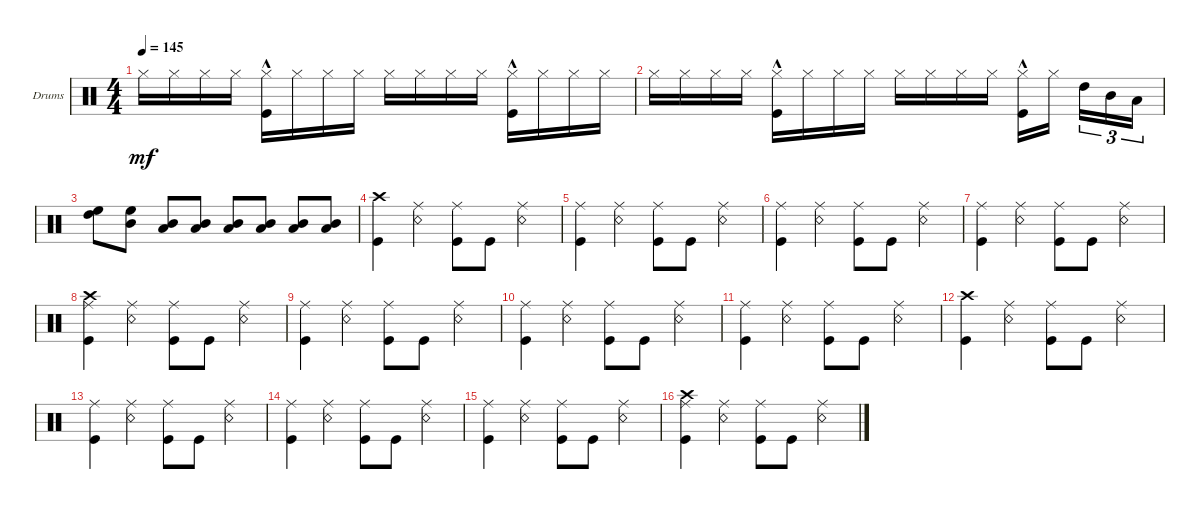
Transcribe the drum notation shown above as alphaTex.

\defaultSystemsLayout 4
\bracketExtendMode groupsimilarinstruments
\firstSystemTrackNameOrientation horizontal
\otherSystemsTrackNameOrientation horizontal
\track ("Drumkit" "Drums") {instrument percussion}
\staff {score}
\articulation defaults
\ts (4 4)
\tempo 145
\clef neutral
\ks c "Hi-Hat (closed)".16{dy mf} "Hi-Hat (closed)".16 "Hi-Hat (closed)".16 "Hi-Hat (closed)".16
("Hi-Hat (closed)"{hac} "Kick (hit)").16 "Hi-Hat (closed)".16 "Hi-Hat (closed)".16 "Hi-Hat (closed)".16 "Hi-Hat (closed)".16 "Hi-Hat (closed)".16 "Hi-Hat (closed)".16 "Hi-Hat (closed)".16 ("Hi-Hat (closed)"{hac} "Kick (hit)").16 "Hi-Hat (closed)".16 "Hi-Hat (closed)".16 "Hi-Hat (closed)".16 |
"Hi-Hat (closed)".16 "Hi-Hat (closed)".16 "Hi-Hat (closed)".16 "Hi-Hat (closed)".16 ("Hi-Hat (closed)"{hac} "Kick (hit)").16 "Hi-Hat (closed)".16 "Hi-Hat (closed)".16 "Hi-Hat (closed)".16 "Hi-Hat (closed)".16 "Hi-Hat (closed)".16 "Hi-Hat (closed)".16 "Hi-Hat (closed)".16 ("Hi-Hat (closed)"{hac} "Kick (hit)").16 "Hi-Hat (closed)".16 "High Tom (hit)".16{tu (3 2)} "Mid Tom (hit)".16{tu (3 2)} "Low Tom (hit)".16{tu (3 2)} |
("High Floor Tom (hit)" "High Tom (hit)").8 ("High Floor Tom (hit)" "Mid Tom (hit)").8 ("Low Tom (hit)" "Mid Tom (hit)").8 ("Low Tom (hit)" "Mid Tom (hit)").8 ("Low Tom (hit)" "Mid Tom (hit)").8 ("Low Tom (hit)" "Mid Tom (hit)").8 ("Low Tom (hit)" "Mid Tom (hit)").8 ("Low Tom (hit)" "Mid Tom (hit)").8 |
("Kick (hit)" "Crash high (hit)").4 ("Ride (middle)" "Snare (rim shot)").4 ("Kick (hit)" "Ride (middle)").8 "Kick (hit)".8 ("Ride (middle)" "Snare (rim shot)").4 |
("Kick (hit)" "Ride (middle)").4 ("Ride (middle)" "Snare (rim shot)").4 ("Kick (hit)" "Ride (middle)").8 "Kick (hit)".8 ("Ride (middle)" "Snare (rim shot)").4 |
("Kick (hit)" "Ride (middle)").4 ("Ride (middle)" "Snare (rim shot)").4 ("Kick (hit)" "Ride (middle)").8 "Kick (hit)".8 ("Ride (middle)" "Snare (rim shot)").4 |
("Kick (hit)" "Ride (middle)").4 ("Ride (middle)" "Snare (rim shot)").4 ("Kick (hit)" "Ride (middle)").8 "Kick (hit)".8 ("Ride (middle)" "Snare (rim shot)").4 |
("Kick (hit)" "Ride (middle)" "Crash high (hit)").4 ("Ride (middle)" "Snare (rim shot)").4 ("Kick (hit)" "Ride (middle)").8 "Kick (hit)".8 ("Ride (middle)" "Snare (rim shot)").4 |
("Kick (hit)" "Ride (middle)").4 ("Ride (middle)" "Snare (rim shot)").4 ("Kick (hit)" "Ride (middle)").8 "Kick (hit)".8 ("Ride (middle)" "Snare (rim shot)").4 |
("Kick (hit)" "Ride (middle)").4 ("Ride (middle)" "Snare (rim shot)").4 ("Kick (hit)" "Ride (middle)").8 "Kick (hit)".8 ("Ride (middle)" "Snare (rim shot)").4 |
("Kick (hit)" "Ride (middle)").4 ("Ride (middle)" "Snare (rim shot)").4 ("Kick (hit)" "Ride (middle)").8 "Kick (hit)".8 ("Ride (middle)" "Snare (rim shot)").4 |
("Kick (hit)" "Crash high (hit)").4 ("Ride (middle)" "Snare (rim shot)").4 ("Kick (hit)" "Ride (middle)").8 "Kick (hit)".8 ("Ride (middle)" "Snare (rim shot)").4 |
("Kick (hit)" "Ride (middle)").4 ("Ride (middle)" "Snare (rim shot)").4 ("Kick (hit)" "Ride (middle)").8 "Kick (hit)".8 ("Ride (middle)" "Snare (rim shot)").4 |
("Kick (hit)" "Ride (middle)").4 ("Ride (middle)" "Snare (rim shot)").4 ("Kick (hit)" "Ride (middle)").8 "Kick (hit)".8 ("Ride (middle)" "Snare (rim shot)").4 |
("Kick (hit)" "Ride (middle)").4 ("Ride (middle)" "Snare (rim shot)").4 ("Kick (hit)" "Ride (middle)").8 "Kick (hit)".8 ("Ride (middle)" "Snare (rim shot)").4 |
("Kick (hit)" "Ride (middle)" "Crash high (hit)").4 ("Ride (middle)" "Snare (rim shot)").4 ("Kick (hit)" "Ride (middle)").8 "Kick (hit)".8 ("Ride (middle)" "Snare (rim shot)").4
